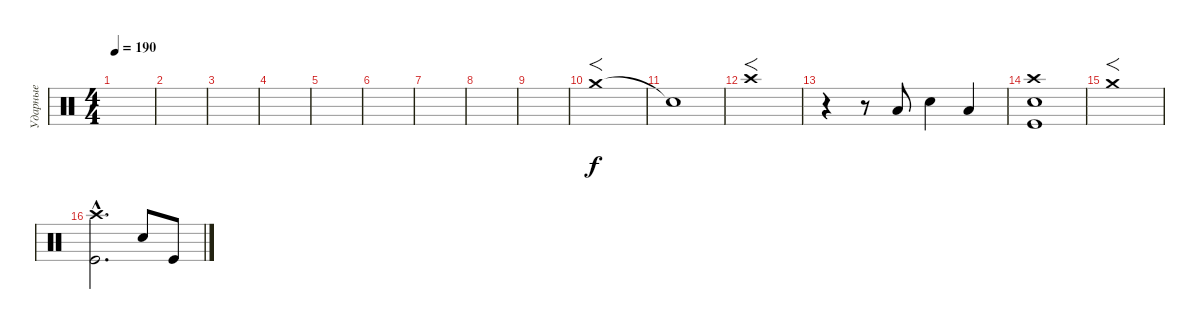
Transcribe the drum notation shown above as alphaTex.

\track ("Ударные" "Ударные") {instrument percussion}
\staff {score}
\articulation defaults
\ts (4 4)
\tempo 190
\clef neutral
\ks c
|
|
|
|
|
|
|
|
|
"Crash medium (hit)".1{f} |
"Snare (hit)"{t}.1 |
"Crash high (hit)".1{f} |
r.4 r.8 "Low Tom (hit)".8 "Electric Snare (hit)".4 "Low Tom (hit)".4 |
("Crash high (hit)" "Electric Snare (hit)" "Kick (hit)").1 |
"Crash medium (hit)".1{f} |
("Crash high (hit)"{hac} "Kick (hit)"{hac}).2{d} "Electric Snare (hit)".8 "Kick (hit)".8
